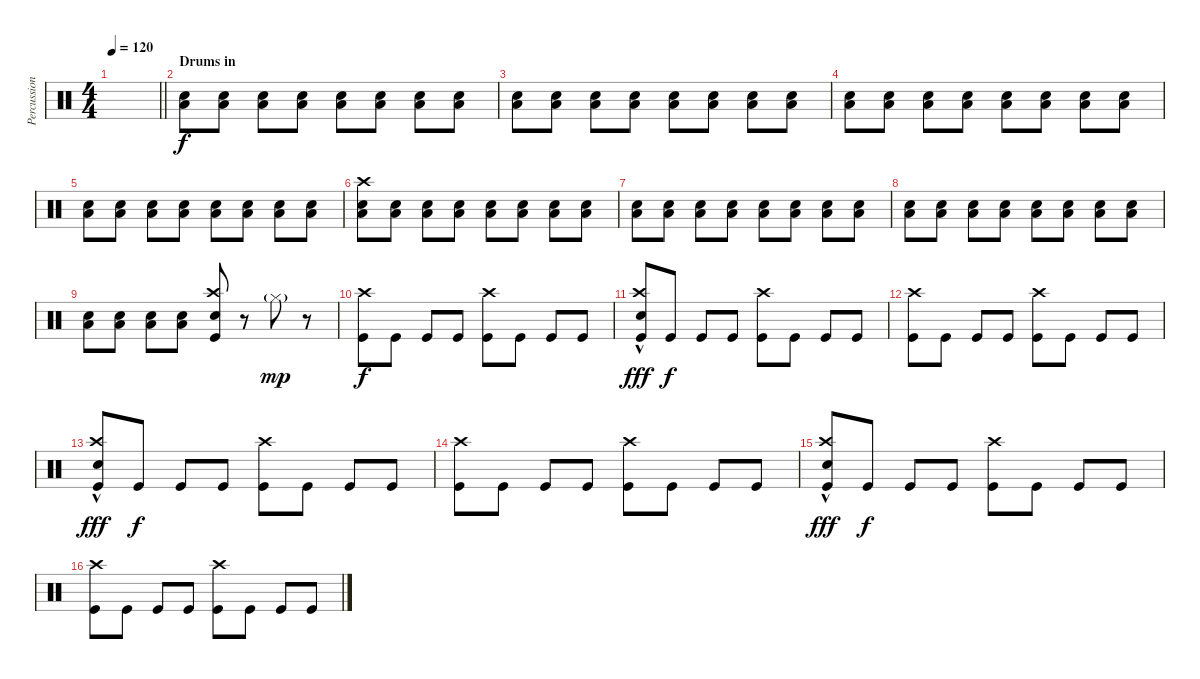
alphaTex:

\track ("Percussion" "Percussion") {instrument percussion}
\staff {score}
\articulation defaults
\ts (4 4)
\tempo 120
\clef neutral
\barLineRight lightlight
\ks c
|
\section ("" "Drums in")
("Low Floor Tom (hit)" "Electric Snare (hit)").8{volume 6} ("Low Floor Tom (hit)" "Electric Snare (hit)").8 ("Low Floor Tom (hit)" "Electric Snare (hit)").8 ("Low Floor Tom (hit)" "Electric Snare (hit)").8 ("Low Floor Tom (hit)" "Electric Snare (hit)").8 ("Low Floor Tom (hit)" "Electric Snare (hit)").8 ("Low Floor Tom (hit)" "Electric Snare (hit)").8 ("Low Floor Tom (hit)" "Electric Snare (hit)").8 |
("Low Floor Tom (hit)" "Electric Snare (hit)").8 ("Low Floor Tom (hit)" "Electric Snare (hit)").8 ("Low Floor Tom (hit)" "Electric Snare (hit)").8 ("Low Floor Tom (hit)" "Electric Snare (hit)").8 ("Low Floor Tom (hit)" "Electric Snare (hit)").8 ("Low Floor Tom (hit)" "Electric Snare (hit)").8 ("Low Floor Tom (hit)" "Electric Snare (hit)").8 ("Low Floor Tom (hit)" "Electric Snare (hit)").8 |
("Low Floor Tom (hit)" "Electric Snare (hit)").8 ("Low Floor Tom (hit)" "Electric Snare (hit)").8 ("Low Floor Tom (hit)" "Electric Snare (hit)").8 ("Low Floor Tom (hit)" "Electric Snare (hit)").8 ("Low Floor Tom (hit)" "Electric Snare (hit)").8 ("Low Floor Tom (hit)" "Electric Snare (hit)").8 ("Low Floor Tom (hit)" "Electric Snare (hit)").8 ("Low Floor Tom (hit)" "Electric Snare (hit)").8 |
("Low Floor Tom (hit)" "Electric Snare (hit)").8 ("Low Floor Tom (hit)" "Electric Snare (hit)").8 ("Low Floor Tom (hit)" "Electric Snare (hit)").8 ("Low Floor Tom (hit)" "Electric Snare (hit)").8 ("Low Floor Tom (hit)" "Electric Snare (hit)").8 ("Low Floor Tom (hit)" "Electric Snare (hit)").8 ("Low Floor Tom (hit)" "Electric Snare (hit)").8 ("Low Floor Tom (hit)" "Electric Snare (hit)").8 |
("Crash high (hit)" "Low Floor Tom (hit)" "Electric Snare (hit)").8{volume 6} ("Low Floor Tom (hit)" "Electric Snare (hit)").8 ("Low Floor Tom (hit)" "Electric Snare (hit)").8 ("Low Floor Tom (hit)" "Electric Snare (hit)").8 ("Low Floor Tom (hit)" "Electric Snare (hit)").8 ("Low Floor Tom (hit)" "Electric Snare (hit)").8 ("Low Floor Tom (hit)" "Electric Snare (hit)").8 ("Low Floor Tom (hit)" "Electric Snare (hit)").8 |
("Low Floor Tom (hit)" "Electric Snare (hit)").8 ("Low Floor Tom (hit)" "Electric Snare (hit)").8 ("Low Floor Tom (hit)" "Electric Snare (hit)").8 ("Low Floor Tom (hit)" "Electric Snare (hit)").8 ("Low Floor Tom (hit)" "Electric Snare (hit)").8 ("Low Floor Tom (hit)" "Electric Snare (hit)").8 ("Low Floor Tom (hit)" "Electric Snare (hit)").8 ("Low Floor Tom (hit)" "Electric Snare (hit)").8 |
("Low Floor Tom (hit)" "Electric Snare (hit)").8{volume 9} ("Low Floor Tom (hit)" "Electric Snare (hit)").8 ("Low Floor Tom (hit)" "Electric Snare (hit)").8 ("Low Floor Tom (hit)" "Electric Snare (hit)").8 ("Low Floor Tom (hit)" "Electric Snare (hit)").8 ("Low Floor Tom (hit)" "Electric Snare (hit)").8 ("Low Floor Tom (hit)" "Electric Snare (hit)").8 ("Low Floor Tom (hit)" "Electric Snare (hit)").8 |
("Low Floor Tom (hit)" "Electric Snare (hit)").8{volume 13} ("Low Floor Tom (hit)" "Electric Snare (hit)").8 ("Low Floor Tom (hit)" "Electric Snare (hit)").8 ("Low Floor Tom (hit)" "Electric Snare (hit)").8 ("Crash high (hit)" "Electric Snare (hit)" "Kick (hit)").8 r.8 "Hi-Hat (closed)"{g}.8{dy mp} r.8 |
("Crash high (hit)" "Kick (hit)").8{dy f} "Kick (hit)".8 "Kick (hit)".8 "Kick (hit)".8 ("Crash high (hit)" "Kick (hit)").8 "Kick (hit)".8 "Kick (hit)".8 "Kick (hit)".8 |
("Crash high (hit)" "Electric Snare (hit)"{hac} "Kick (hit)").8{dy fff} "Kick (hit)".8{dy f} "Kick (hit)".8 "Kick (hit)".8 ("Crash high (hit)" "Kick (hit)").8 "Kick (hit)".8 "Kick (hit)".8 "Kick (hit)".8 |
("Crash high (hit)" "Kick (hit)").8 "Kick (hit)".8 "Kick (hit)".8 "Kick (hit)".8 ("Crash high (hit)" "Kick (hit)").8 "Kick (hit)".8 "Kick (hit)".8 "Kick (hit)".8 |
("Crash high (hit)" "Electric Snare (hit)"{hac} "Kick (hit)").8{dy fff} "Kick (hit)".8{dy f} "Kick (hit)".8 "Kick (hit)".8 ("Crash high (hit)" "Kick (hit)").8 "Kick (hit)".8 "Kick (hit)".8 "Kick (hit)".8 |
("Crash high (hit)" "Kick (hit)").8 "Kick (hit)".8 "Kick (hit)".8 "Kick (hit)".8 ("Crash high (hit)" "Kick (hit)").8 "Kick (hit)".8 "Kick (hit)".8 "Kick (hit)".8 |
("Crash high (hit)" "Electric Snare (hit)"{hac} "Kick (hit)").8{dy fff} "Kick (hit)".8{dy f} "Kick (hit)".8 "Kick (hit)".8 ("Crash high (hit)" "Kick (hit)").8 "Kick (hit)".8 "Kick (hit)".8 "Kick (hit)".8 |
("Crash high (hit)" "Kick (hit)").8 "Kick (hit)".8 "Kick (hit)".8 "Kick (hit)".8 ("Crash high (hit)" "Kick (hit)").8 "Kick (hit)".8 "Kick (hit)".8 "Kick (hit)".8
